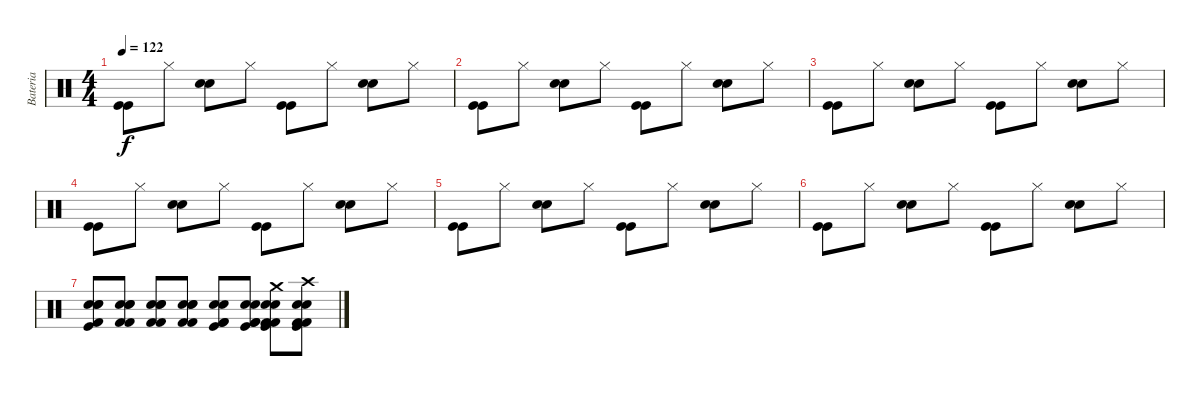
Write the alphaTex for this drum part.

\track ("Bateria" "Bateria") {instrument percussion}
\staff {score}
\articulation defaults
\ts (4 4)
\tempo 122
\clef neutral
\ks c
("Kick (hit)" "Kick (hit)").8{dy f} "Hi-Hat (closed)".8 ("Snare (hit) 2" "Snare (hit) 2").8 "Hi-Hat (closed)".8 ("Kick (hit)" "Kick (hit)").8 "Hi-Hat (closed)".8 ("Snare (hit) 2" "Snare (hit) 2").8 "Hi-Hat (closed)".8 |
("Kick (hit)" "Kick (hit)").8 "Hi-Hat (closed)".8 ("Snare (hit) 2" "Snare (hit) 2").8 "Hi-Hat (closed)".8 ("Kick (hit)" "Kick (hit)").8 "Hi-Hat (closed)".8 ("Snare (hit) 2" "Snare (hit) 2").8 "Hi-Hat (closed)".8 |
("Kick (hit)" "Kick (hit)").8 "Hi-Hat (closed)".8 ("Snare (hit) 2" "Snare (hit) 2").8 "Hi-Hat (closed)".8 ("Kick (hit)" "Kick (hit)").8 "Hi-Hat (closed)".8 ("Snare (hit) 2" "Snare (hit) 2").8 "Hi-Hat (closed)".8 |
("Kick (hit)" "Kick (hit)").8 "Hi-Hat (closed)".8 ("Snare (hit) 2" "Snare (hit) 2").8 "Hi-Hat (closed)".8 ("Kick (hit)" "Kick (hit)").8 "Hi-Hat (closed)".8 ("Snare (hit) 2" "Snare (hit) 2").8 "Hi-Hat (closed)".8 |
("Kick (hit)" "Kick (hit)").8 "Hi-Hat (closed)".8 ("Snare (hit) 2" "Snare (hit) 2").8 "Hi-Hat (closed)".8 ("Kick (hit)" "Kick (hit)").8 "Hi-Hat (closed)".8 ("Snare (hit) 2" "Snare (hit) 2").8 "Hi-Hat (closed)".8 |
("Kick (hit)" "Kick (hit)").8 "Hi-Hat (closed)".8 ("Snare (hit) 2" "Snare (hit) 2").8 "Hi-Hat (closed)".8 ("Kick (hit)" "Kick (hit)").8 "Hi-Hat (closed)".8 ("Snare (hit) 2" "Snare (hit) 2").8 "Hi-Hat (closed)".8{volume 3} |
("Kick (hit) 2" "Snare (hit) 2" "Snare (hit) 2" "Snare (hit) 2" "Kick (hit)").8{volume 10} ("Kick (hit) 2" "Snare (hit) 2" "Snare (hit) 2" "Snare (hit) 2" "Kick (hit) 2").8 ("Kick (hit) 2" "Snare (hit) 2" "Snare (hit) 2" "Snare (hit) 2" "Kick (hit) 2").8 ("Kick (hit) 2" "Snare (hit) 2" "Snare (hit) 2" "Snare (hit) 2" "Kick (hit) 2").8 ("Kick (hit) 2" "Snare (hit) 2" "Snare (hit) 2" "Kick (hit)" "Kick (hit) 2").8 ("Kick (hit) 2" "Snare (hit) 2" "Snare (hit) 2" "Kick (hit)" "Kick (hit) 2").8 ("Crash medium (hit)" "Kick (hit) 2" "Snare (hit) 2" "Snare (hit) 2" "Kick (hit)" "Kick (hit) 2").8 ("Crash high (hit)" "Kick (hit) 2" "Snare (hit) 2" "Snare (hit) 2" "Kick (hit)" "Kick (hit) 2").8
